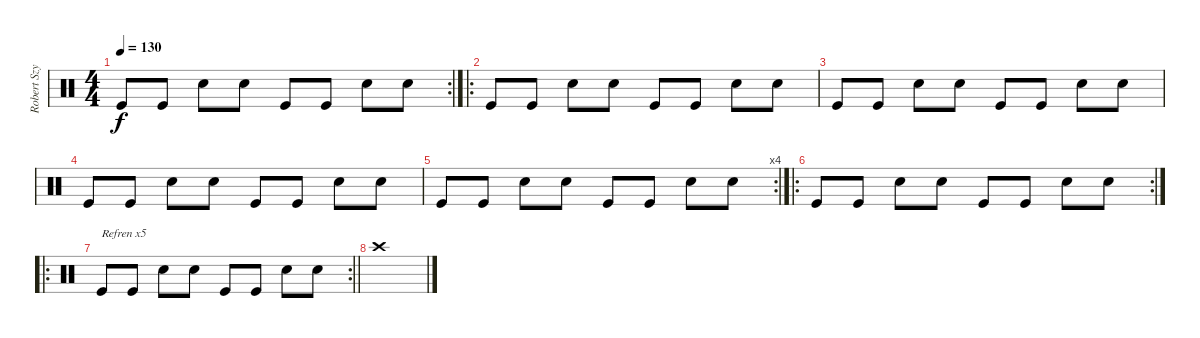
\track ("Robert Szyszko" "Robert Szy") {instrument percussion}
\staff {score}
\articulation defaults
\rc 2
\ts (4 4)
\tempo 130
\clef neutral
\ks c "Kick (hit)".8{dy f} "Kick (hit)".8 "Snare (hit) 2".8 "Electric Snare (hit)".8 "Kick (hit)".8 "Kick (hit)".8 "Snare (hit) 2".8 "Electric Snare (hit)".8
|
\ro "Kick (hit)".8 "Kick (hit)".8 "Snare (hit) 2".8 "Electric Snare (hit)".8 "Kick (hit)".8 "Kick (hit)".8 "Snare (hit) 2".8 "Electric Snare (hit)".8
|
"Kick (hit)".8 "Kick (hit)".8 "Snare (hit) 2".8 "Electric Snare (hit)".8 "Kick (hit)".8 "Kick (hit)".8 "Snare (hit) 2".8 "Electric Snare (hit)".8 |
"Kick (hit)".8 "Kick (hit)".8 "Snare (hit) 2".8 "Electric Snare (hit)".8 "Kick (hit)".8 "Kick (hit)".8 "Snare (hit) 2".8 "Electric Snare (hit)".8 |
\rc 4 "Kick (hit)".8 "Kick (hit)".8 "Snare (hit) 2".8 "Electric Snare (hit)".8 "Kick (hit)".8 "Kick (hit)".8 "Snare (hit) 2".8 "Electric Snare (hit)".8
|
\ro
\rc 2 "Kick (hit)".8 "Kick (hit)".8 "Snare (hit) 2".8 "Electric Snare (hit)".8 "Kick (hit)".8 "Kick (hit)".8 "Snare (hit) 2".8 "Electric Snare (hit)".8
|
\ro
\rc 2
\barLineRight lightlight "Kick (hit)".8{txt "Refren x5"} "Kick (hit)".8 "Snare (hit) 2".8 "Electric Snare (hit)".8 "Kick (hit)".8 "Kick (hit)".8 "Snare (hit) 2".8 "Electric Snare (hit)".8
|
"Crash high (hit)".1
